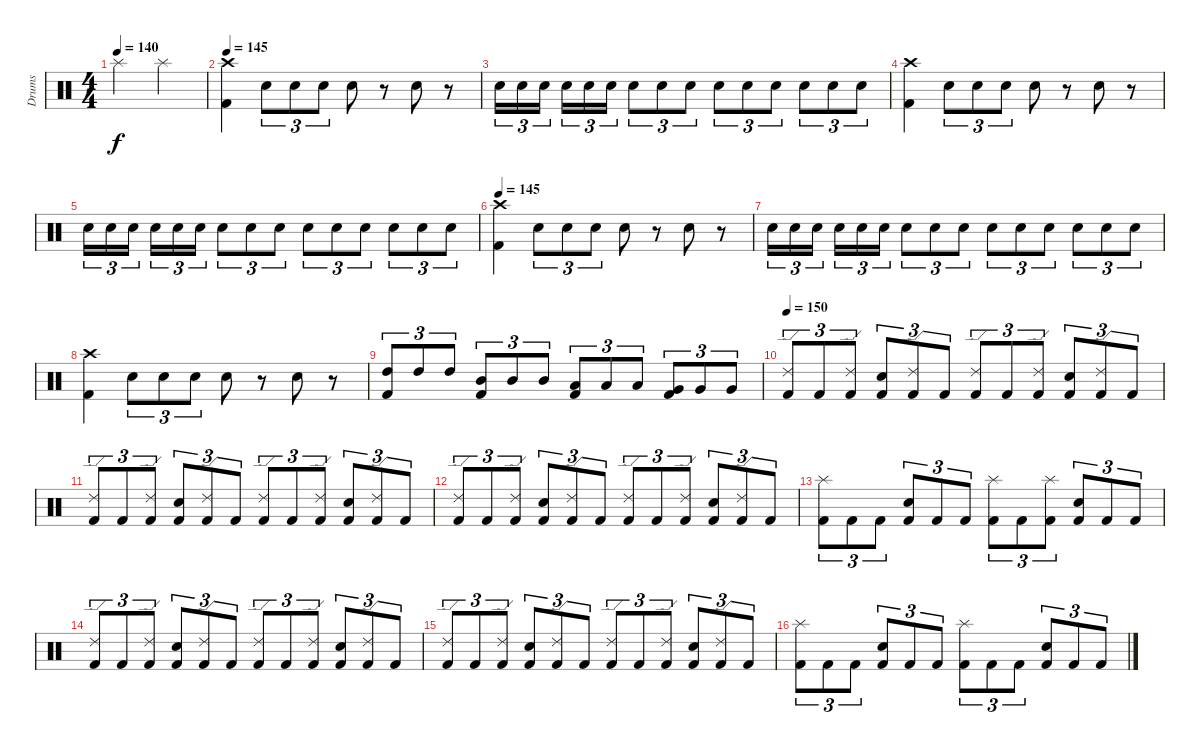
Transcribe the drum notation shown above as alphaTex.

\track ("Drums" "Drums") {instrument percussion}
\staff {score}
\articulation defaults
\ts (4 4)
\tempo 140
\clef neutral
\ks c "Splash (hit)".2{dy f} "Splash (hit)".2
|
\tempo 145
("Kick (hit) 2" "Crash high (hit)").4 "Electric Snare (hit)".8{tu (3 2)} "Electric Snare (hit)".8{tu (3 2)} "Electric Snare (hit)".8{tu (3 2)} "Electric Snare (hit)".8 r.8 "Electric Snare (hit)".8 r.8 |
"Electric Snare (hit)".16{tu (3 2)} "Electric Snare (hit)".16{tu (3 2)} "Electric Snare (hit)".16{tu (3 2)} "Electric Snare (hit)".16{tu (3 2)} "Electric Snare (hit)".16{tu (3 2)} "Electric Snare (hit)".16{tu (3 2)} "Electric Snare (hit)".8{tu (3 2)} "Electric Snare (hit)".8{tu (3 2)} "Electric Snare (hit)".8{tu (3 2)} "Electric Snare (hit)".8{tu (3 2)} "Electric Snare (hit)".8{tu (3 2)} "Electric Snare (hit)".8{tu (3 2)} "Electric Snare (hit)".8{tu (3 2)} "Electric Snare (hit)".8{tu (3 2)} "Electric Snare (hit)".8{tu (3 2)} |
("Kick (hit) 2" "Crash high (hit)").4 "Electric Snare (hit)".8{tu (3 2)} "Electric Snare (hit)".8{tu (3 2)} "Electric Snare (hit)".8{tu (3 2)} "Electric Snare (hit)".8 r.8 "Electric Snare (hit)".8 r.8 |
"Electric Snare (hit)".16{tu (3 2)} "Electric Snare (hit)".16{tu (3 2)} "Electric Snare (hit)".16{tu (3 2)} "Electric Snare (hit)".16{tu (3 2)} "Electric Snare (hit)".16{tu (3 2)} "Electric Snare (hit)".16{tu (3 2)} "Electric Snare (hit)".8{tu (3 2)} "Electric Snare (hit)".8{tu (3 2)} "Electric Snare (hit)".8{tu (3 2)} "Electric Snare (hit)".8{tu (3 2)} "Electric Snare (hit)".8{tu (3 2)} "Electric Snare (hit)".8{tu (3 2)} "Electric Snare (hit)".8{tu (3 2)} "Electric Snare (hit)".8{tu (3 2)} "Electric Snare (hit)".8{tu (3 2)} |
\tempo 145
("Kick (hit) 2" "Crash high (hit)").4 "Electric Snare (hit)".8{tu (3 2)} "Electric Snare (hit)".8{tu (3 2)} "Electric Snare (hit)".8{tu (3 2)} "Electric Snare (hit)".8 r.8 "Electric Snare (hit)".8 r.8 |
"Electric Snare (hit)".16{tu (3 2)} "Electric Snare (hit)".16{tu (3 2)} "Electric Snare (hit)".16{tu (3 2)} "Electric Snare (hit)".16{tu (3 2)} "Electric Snare (hit)".16{tu (3 2)} "Electric Snare (hit)".16{tu (3 2)} "Electric Snare (hit)".8{tu (3 2)} "Electric Snare (hit)".8{tu (3 2)} "Electric Snare (hit)".8{tu (3 2)} "Electric Snare (hit)".8{tu (3 2)} "Electric Snare (hit)".8{tu (3 2)} "Electric Snare (hit)".8{tu (3 2)} "Electric Snare (hit)".8{tu (3 2)} "Electric Snare (hit)".8{tu (3 2)} "Electric Snare (hit)".8{tu (3 2)} |
("Kick (hit) 2" "Crash high (hit)").4 "Electric Snare (hit)".8{tu (3 2)} "Electric Snare (hit)".8{tu (3 2)} "Electric Snare (hit)".8{tu (3 2)} "Electric Snare (hit)".8 r.8 "Electric Snare (hit)".8 r.8 |
("Kick (hit) 2" "High Tom (hit)").8{tu (3 2)} "High Tom (hit)".8{tu (3 2)} "High Tom (hit)".8{tu (3 2)} ("Kick (hit) 2" "Mid Tom (hit)").8{tu (3 2)} "Mid Tom (hit)".8{tu (3 2)} "Mid Tom (hit)".8{tu (3 2)} ("Kick (hit) 2" "Low Tom (hit)").8{tu (3 2)} "Low Tom (hit)".8{tu (3 2)} "Low Tom (hit)".8{tu (3 2)} ("Kick (hit) 2" "Very Low Tom (hit)").8{tu (3 2)} "Very Low Tom (hit)".8{tu (3 2)} "Very Low Tom (hit)".8{tu (3 2)} |
\tempo 150
("Kick (hit) 2" "Ride (edge) 2").8{tu (3 2)} "Kick (hit) 2".8{tu (3 2)} ("Kick (hit) 2" "Ride (edge) 2").8{tu (3 2)} ("Kick (hit) 2" "Electric Snare (hit)").8{tu (3 2)} ("Kick (hit) 2" "Ride (edge) 2").8{tu (3 2)} "Kick (hit) 2".8{tu (3 2)} ("Kick (hit) 2" "Ride (edge) 2").8{tu (3 2)} "Kick (hit) 2".8{tu (3 2)} ("Kick (hit) 2" "Ride (edge) 2").8{tu (3 2)} ("Kick (hit) 2" "Electric Snare (hit)").8{tu (3 2)} ("Kick (hit) 2" "Ride (edge) 2").8{tu (3 2)} "Kick (hit) 2".8{tu (3 2)} |
("Kick (hit) 2" "Ride (edge) 2").8{tu (3 2)} "Kick (hit) 2".8{tu (3 2)} ("Kick (hit) 2" "Ride (edge) 2").8{tu (3 2)} ("Kick (hit) 2" "Electric Snare (hit)").8{tu (3 2)} ("Kick (hit) 2" "Ride (edge) 2").8{tu (3 2)} "Kick (hit) 2".8{tu (3 2)} ("Kick (hit) 2" "Ride (edge) 2").8{tu (3 2)} "Kick (hit) 2".8{tu (3 2)} ("Kick (hit) 2" "Ride (edge) 2").8{tu (3 2)} ("Kick (hit) 2" "Electric Snare (hit)").8{tu (3 2)} ("Kick (hit) 2" "Ride (edge) 2").8{tu (3 2)} "Kick (hit) 2".8{tu (3 2)} |
("Kick (hit) 2" "Ride (edge) 2").8{tu (3 2)} "Kick (hit) 2".8{tu (3 2)} ("Kick (hit) 2" "Ride (edge) 2").8{tu (3 2)} ("Kick (hit) 2" "Electric Snare (hit)").8{tu (3 2)} ("Kick (hit) 2" "Ride (edge) 2").8{tu (3 2)} "Kick (hit) 2".8{tu (3 2)} ("Kick (hit) 2" "Ride (edge) 2").8{tu (3 2)} "Kick (hit) 2".8{tu (3 2)} ("Kick (hit) 2" "Ride (edge) 2").8{tu (3 2)} ("Kick (hit) 2" "Electric Snare (hit)").8{tu (3 2)} ("Kick (hit) 2" "Ride (edge) 2").8{tu (3 2)} "Kick (hit) 2".8{tu (3 2)} |
("Kick (hit) 2" "Splash (hit)").8{tu (3 2)} "Kick (hit) 2".8{tu (3 2)} "Kick (hit) 2".8{tu (3 2)} ("Kick (hit) 2" "Electric Snare (hit)").8{tu (3 2)} "Kick (hit) 2".8{tu (3 2)} "Kick (hit) 2".8{tu (3 2)} ("Kick (hit) 2" "Splash (hit)").8{tu (3 2)} "Kick (hit) 2".8{tu (3 2)} ("Kick (hit) 2" "Splash (hit)").8{tu (3 2)} ("Kick (hit) 2" "Electric Snare (hit)").8{tu (3 2)} "Kick (hit) 2".8{tu (3 2)} "Kick (hit) 2".8{tu (3 2)} |
("Kick (hit) 2" "Ride (edge) 2").8{tu (3 2)} "Kick (hit) 2".8{tu (3 2)} ("Kick (hit) 2" "Ride (edge) 2").8{tu (3 2)} ("Kick (hit) 2" "Electric Snare (hit)").8{tu (3 2)} ("Kick (hit) 2" "Ride (edge) 2").8{tu (3 2)} "Kick (hit) 2".8{tu (3 2)} ("Kick (hit) 2" "Ride (edge) 2").8{tu (3 2)} "Kick (hit) 2".8{tu (3 2)} ("Kick (hit) 2" "Ride (edge) 2").8{tu (3 2)} ("Kick (hit) 2" "Electric Snare (hit)").8{tu (3 2)} ("Kick (hit) 2" "Ride (edge) 2").8{tu (3 2)} "Kick (hit) 2".8{tu (3 2)} |
("Kick (hit) 2" "Ride (edge) 2").8{tu (3 2)} "Kick (hit) 2".8{tu (3 2)} ("Kick (hit) 2" "Ride (edge) 2").8{tu (3 2)} ("Kick (hit) 2" "Electric Snare (hit)").8{tu (3 2)} ("Kick (hit) 2" "Ride (edge) 2").8{tu (3 2)} "Kick (hit) 2".8{tu (3 2)} ("Kick (hit) 2" "Ride (edge) 2").8{tu (3 2)} "Kick (hit) 2".8{tu (3 2)} ("Kick (hit) 2" "Ride (edge) 2").8{tu (3 2)} ("Kick (hit) 2" "Electric Snare (hit)").8{tu (3 2)} ("Kick (hit) 2" "Ride (edge) 2").8{tu (3 2)} "Kick (hit) 2".8{tu (3 2)} |
("Kick (hit) 2" "Splash (hit)").8{tu (3 2)} "Kick (hit) 2".8{tu (3 2)} "Kick (hit) 2".8{tu (3 2)} ("Kick (hit) 2" "Electric Snare (hit)").8{tu (3 2)} "Kick (hit) 2".8{tu (3 2)} "Kick (hit) 2".8{tu (3 2)} ("Kick (hit) 2" "Splash (hit)").8{tu (3 2)} "Kick (hit) 2".8{tu (3 2)} "Kick (hit) 2".8{tu (3 2)} ("Kick (hit) 2" "Electric Snare (hit)").8{tu (3 2)} "Kick (hit) 2".8{tu (3 2)} "Kick (hit) 2".8{tu (3 2)}
